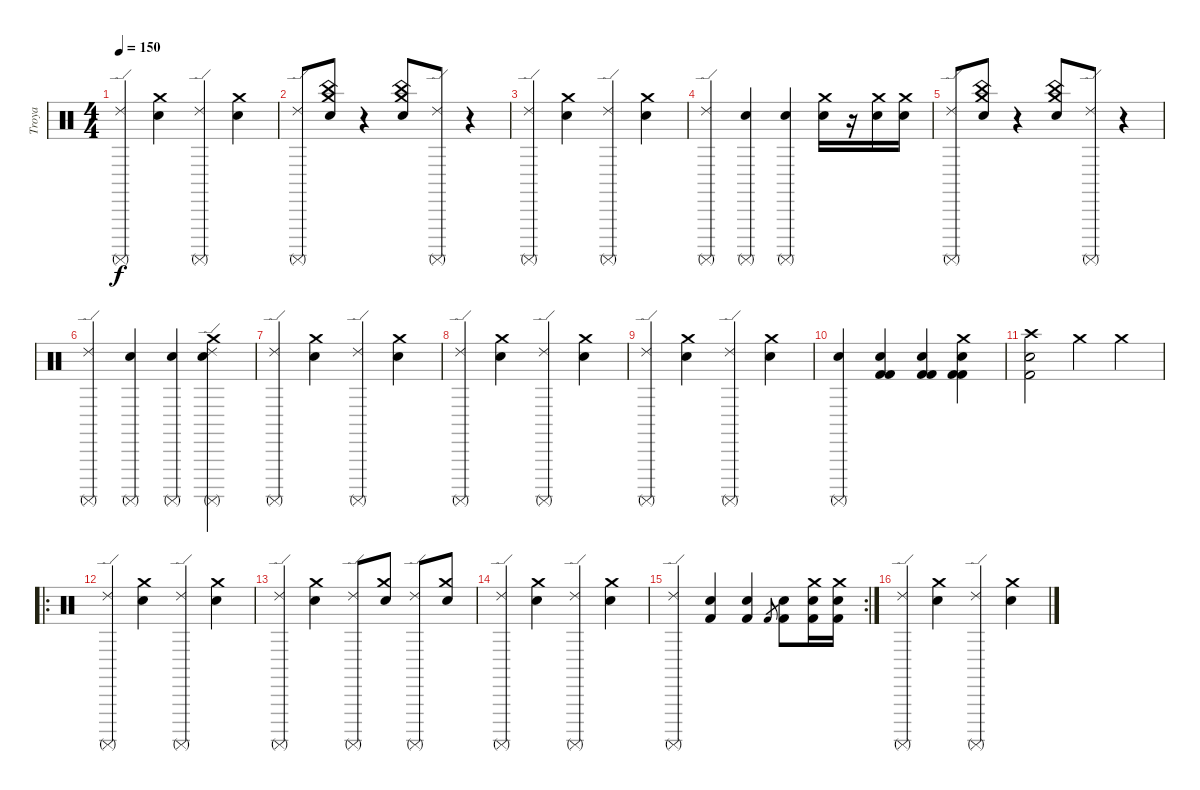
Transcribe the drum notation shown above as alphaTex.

\track ("Troya" "Troya") {instrument percussion}
\staff {score}
\articulation defaults
\ts (4 4)
\tempo 150
\clef neutral
\ks c
("Ride (edge) 2" "Surdo (mute)").4{dy f} ("Crash medium (hit)" "Electric Snare (hit)").4 ("Ride (edge) 2" "Surdo (mute)").4 ("Crash medium (hit)" "Electric Snare (hit)").4 |
("Ride (edge) 2" "Surdo (mute)").8 ("China (hit)" "Crash medium (hit)" "Electric Snare (hit)").8 r.4 ("China (hit)" "Crash medium (hit)" "Electric Snare (hit)").8 ("Ride (edge) 2" "Surdo (mute)").8 r.4 |
("Ride (edge) 2" "Surdo (mute)").4 ("Crash medium (hit)" "Electric Snare (hit)").4 ("Ride (edge) 2" "Surdo (mute)").4 ("Crash medium (hit)" "Electric Snare (hit)").4 |
("Ride (edge) 2" "Surdo (mute)").4 ("Surdo (mute)" "Electric Snare (hit)").4 ("Surdo (mute)" "Electric Snare (hit)").4 ("Crash medium (hit)" "Snare (hit) 2").16 r.16 ("Crash medium (hit)" "Snare (hit) 2").16 ("Crash medium (hit)" "Snare (hit) 2").16 |
("Ride (edge) 2" "Surdo (mute)").8 ("China (hit)" "Crash medium (hit)" "Electric Snare (hit)").8 r.4 ("China (hit)" "Crash medium (hit)" "Electric Snare (hit)").8 ("Ride (edge) 2" "Surdo (mute)").8 r.4 |
("Ride (edge) 2" "Surdo (mute)").4 ("Surdo (mute)" "Electric Snare (hit)").4 ("Surdo (mute)" "Electric Snare (hit)").4 ("Surdo (mute)" "Electric Snare (hit)" "Ride (edge) 2" "Crash medium (hit)").4 |
("Ride (edge) 2" "Surdo (mute)").4 ("Crash medium (hit)" "Electric Snare (hit)").4 ("Ride (edge) 2" "Surdo (mute)").4 ("Crash medium (hit)" "Electric Snare (hit)").4 |
("Ride (edge) 2" "Surdo (mute)").4 ("Crash medium (hit)" "Electric Snare (hit)").4 ("Ride (edge) 2" "Surdo (mute)").4 ("Crash medium (hit)" "Electric Snare (hit)").4 |
("Ride (edge) 2" "Surdo (mute)").4 ("Crash medium (hit)" "Electric Snare (hit)").4 ("Ride (edge) 2" "Surdo (mute)").4 ("Crash medium (hit)" "Electric Snare (hit)").4 |
("Electric Snare (hit)" "Surdo (mute)").4 ("Electric Snare (hit)" "Kick (hit) 2" "Kick (hit) 2").4 ("Electric Snare (hit)" "Kick (hit) 2" "Kick (hit) 2").4 ("Crash medium (hit)" "Kick (hit) 2" "Kick (hit) 2" "Electric Snare (hit)").4 |
("Crash high (hit)" "Snare (hit) 2" "Kick (hit) 2").2 "Crash medium (hit)".4 "Crash medium (hit)".4 |
\ro
("Ride (edge) 2" "Surdo (mute)").4 ("Crash medium (hit)" "Electric Snare (hit)").4 ("Ride (edge) 2" "Surdo (mute)").4 ("Crash medium (hit)" "Electric Snare (hit)").4 |
("Ride (edge) 2" "Surdo (mute)").4 ("Crash medium (hit)" "Electric Snare (hit)").4 ("Ride (edge) 2" "Surdo (mute)").8 ("Crash medium (hit)" "Electric Snare (hit)").8 ("Ride (edge) 2" "Surdo (mute)").8 ("Crash medium (hit)" "Electric Snare (hit)").8 |
("Ride (edge) 2" "Surdo (mute)").4 ("Crash medium (hit)" "Electric Snare (hit)").4 ("Ride (edge) 2" "Surdo (mute)").4 ("Crash medium (hit)" "Electric Snare (hit)").4 |
\rc 2
("Ride (edge) 2" "Surdo (mute)").4 ("Electric Snare (hit)" "Kick (hit) 2").4 ("Electric Snare (hit)" "Kick (hit) 2").4 "Kick (hit) 2".8{gr} ("Electric Snare (hit)" "Kick (hit) 2").8 ("Crash medium (hit)" "Electric Snare (hit)" "Kick (hit) 2").16 ("Crash medium (hit)" "Electric Snare (hit)" "Kick (hit) 2").16 |
("Ride (edge) 2" "Surdo (mute)").4 ("Crash medium (hit)" "Electric Snare (hit)").4 ("Ride (edge) 2" "Surdo (mute)").4 ("Crash medium (hit)" "Electric Snare (hit)").4
